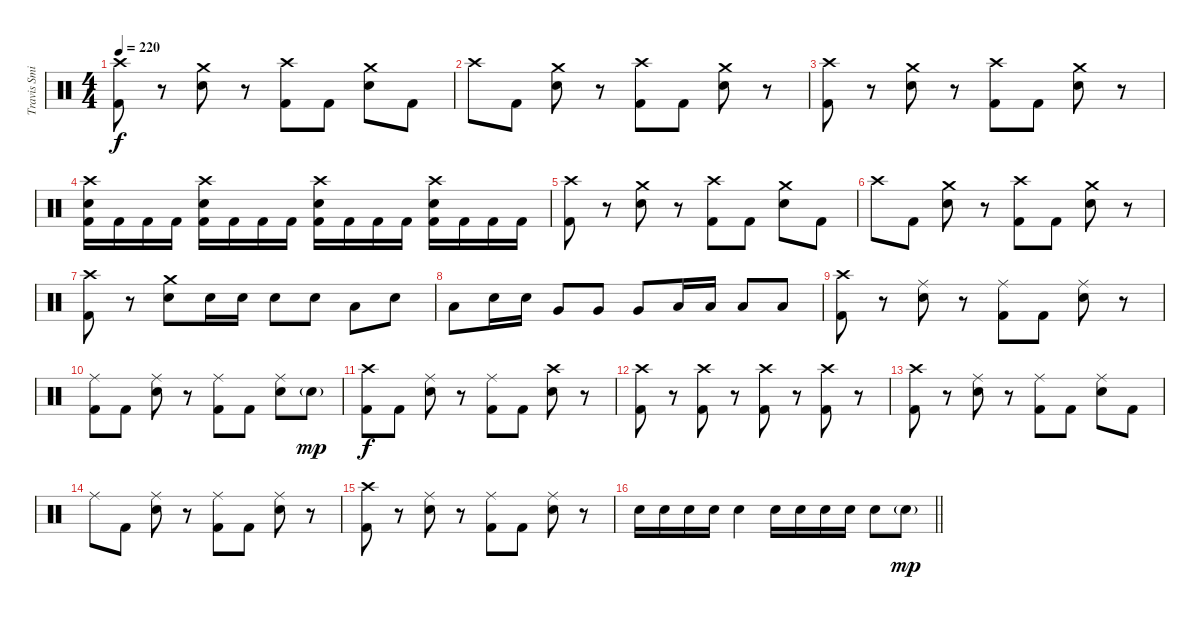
\track ("Travis Smith" "Travis Smi") {instrument percussion}
\staff {score}
\articulation defaults
\ts (4 4)
\tempo 220
\clef neutral
\ks c
("Crash high (hit)" "Kick (hit) 2").8{dy f} r.8 ("Crash medium (hit)" "Electric Snare (hit)").8 r.8 ("Crash high (hit)" "Kick (hit) 2").8 "Kick (hit) 2".8 ("Crash medium (hit)" "Electric Snare (hit)").8 "Kick (hit) 2".8 |
"Crash high (hit)".8 "Kick (hit) 2".8 ("Crash medium (hit)" "Electric Snare (hit)").8 r.8 ("Crash high (hit)" "Kick (hit) 2").8 "Kick (hit) 2".8 ("Crash medium (hit)" "Electric Snare (hit)").8 r.8 |
("Crash high (hit)" "Kick (hit) 2").8 r.8 ("Crash medium (hit)" "Electric Snare (hit)").8 r.8 ("Crash high (hit)" "Kick (hit) 2").8 "Kick (hit) 2".8 ("Crash medium (hit)" "Electric Snare (hit)").8 r.8 |
("Crash high (hit)" "Electric Snare (hit)" "Kick (hit) 2").16 "Kick (hit) 2".16 "Kick (hit) 2".16 "Kick (hit) 2".16 ("Crash high (hit)" "Electric Snare (hit)" "Kick (hit) 2").16 "Kick (hit) 2".16 "Kick (hit) 2".16 "Kick (hit) 2".16 ("Crash high (hit)" "Electric Snare (hit)" "Kick (hit) 2").16 "Kick (hit) 2".16 "Kick (hit) 2".16 "Kick (hit) 2".16 ("Crash high (hit)" "Electric Snare (hit)" "Kick (hit) 2").16 "Kick (hit) 2".16 "Kick (hit) 2".16 "Kick (hit) 2".16 |
("Crash high (hit)" "Kick (hit) 2").8 r.8 ("Crash medium (hit)" "Electric Snare (hit)").8 r.8 ("Crash high (hit)" "Kick (hit) 2").8 "Kick (hit) 2".8 ("Crash medium (hit)" "Electric Snare (hit)").8 "Kick (hit) 2".8 |
"Crash high (hit)".8 "Kick (hit) 2".8 ("Crash medium (hit)" "Electric Snare (hit)").8 r.8 ("Crash high (hit)" "Kick (hit) 2").8 "Kick (hit) 2".8 ("Crash medium (hit)" "Electric Snare (hit)").8 r.8 |
("Crash high (hit)" "Kick (hit) 2").8 r.8 ("Crash medium (hit)" "Electric Snare (hit)").8 "Electric Snare (hit)".16 "Electric Snare (hit)".16 "Electric Snare (hit)".8 "Electric Snare (hit)".8 "Low Tom (hit)".8 "Electric Snare (hit)".8 |
"Low Tom (hit)".8 "Electric Snare (hit)".16 "Electric Snare (hit)".16 "Very Low Tom (hit)".8 "Very Low Tom (hit)".8 "Very Low Tom (hit)".8 "Low Floor Tom (hit)".16 "Low Floor Tom (hit)".16 "Low Floor Tom (hit)".8 "Low Floor Tom (hit)".8 |
("Crash high (hit)" "Kick (hit) 2").8 r.8 ("Ride (middle)" "Electric Snare (hit)").8 r.8 ("Ride (middle)" "Kick (hit) 2").8 "Kick (hit) 2".8 ("Ride (middle)" "Electric Snare (hit)").8 r.8 |
("Ride (middle)" "Kick (hit) 2").8 "Kick (hit) 2".8 ("Ride (middle)" "Electric Snare (hit)").8 r.8 ("Ride (middle)" "Kick (hit) 2").8 "Kick (hit) 2".8 ("Ride (middle)" "Electric Snare (hit)").8 "Electric Snare (hit)"{g}.8{dy mp} |
("Crash high (hit)" "Kick (hit) 2").8{dy f} "Kick (hit) 2".8 ("Ride (middle)" "Electric Snare (hit)").8 r.8 ("Ride (middle)" "Kick (hit) 2").8 "Kick (hit) 2".8 ("Crash high (hit)" "Electric Snare (hit)").8 r.8 |
("Crash high (hit)" "Kick (hit) 2").8 r.8 ("Crash high (hit)" "Kick (hit) 2").8 r.8 ("Crash high (hit)" "Kick (hit) 2").8 r.8 ("Crash high (hit)" "Kick (hit) 2").8 r.8 |
("Crash high (hit)" "Kick (hit) 2").8 r.8 ("Ride (middle)" "Electric Snare (hit)").8 r.8 ("Ride (middle)" "Kick (hit) 2").8 "Kick (hit) 2".8 ("Ride (middle)" "Electric Snare (hit)").8 "Kick (hit) 2".8 |
"Ride (middle)".8 "Kick (hit) 2".8 ("Ride (middle)" "Electric Snare (hit)").8 r.8 ("Ride (middle)" "Kick (hit) 2").8 "Kick (hit) 2".8 ("Ride (middle)" "Electric Snare (hit)").8 r.8 |
("Crash high (hit)" "Kick (hit) 2").8 r.8 ("Ride (middle)" "Electric Snare (hit)").8 r.8 ("Ride (middle)" "Kick (hit) 2").8 "Kick (hit) 2".8 ("Ride (middle)" "Electric Snare (hit)").8 r.8 |
\barLineRight lightlight "Electric Snare (hit)".16 "Electric Snare (hit)".16 "Electric Snare (hit)".16 "Electric Snare (hit)".16 "Electric Snare (hit)".4 "Electric Snare (hit)".16 "Electric Snare (hit)".16 "Electric Snare (hit)".16 "Electric Snare (hit)".16 "Electric Snare (hit)".8 "Electric Snare (hit)"{g}.8{dy mp}
